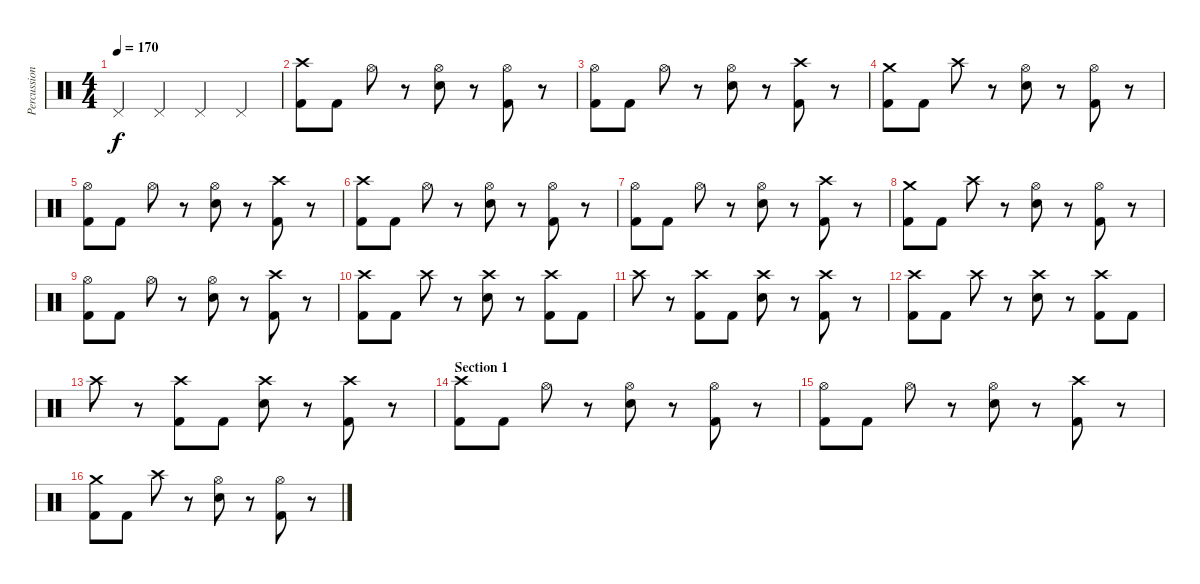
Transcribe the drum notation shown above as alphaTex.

\track ("Percussion" "Percussion") {instrument percussion}
\staff {score}
\articulation defaults
\ts (4 4)
\tempo 170
\clef neutral
\ks c "Pedal Hi-Hat (hit)".4{dy f} "Pedal Hi-Hat (hit)".4 "Pedal Hi-Hat (hit)".4 "Pedal Hi-Hat (hit)".4
|
("Crash high (hit)" "Kick (hit) 2").8 "Kick (hit) 2".8 "Hi-Hat (open)".8 r.8 ("Hi-Hat (open)" "Electric Snare (hit)").8 r.8 ("Hi-Hat (open)" "Kick (hit) 2").8 r.8 |
("Hi-Hat (open)" "Kick (hit) 2").8 "Kick (hit) 2".8 "Hi-Hat (open)".8 r.8 ("Hi-Hat (open)" "Electric Snare (hit)").8 r.8 ("Crash high (hit)" "Kick (hit) 2").8 r.8 |
("Crash medium (hit)" "Kick (hit) 2").8 "Kick (hit) 2".8 "Crash high (hit)".8 r.8 ("Hi-Hat (open)" "Electric Snare (hit)").8 r.8 ("Hi-Hat (open)" "Kick (hit) 2").8 r.8 |
("Hi-Hat (open)" "Kick (hit) 2").8 "Kick (hit) 2".8 "Hi-Hat (open)".8 r.8 ("Hi-Hat (open)" "Electric Snare (hit)").8 r.8 ("Crash high (hit)" "Kick (hit) 2").8 r.8 |
("Crash high (hit)" "Kick (hit) 2").8 "Kick (hit) 2".8 "Hi-Hat (open)".8 r.8 ("Hi-Hat (open)" "Electric Snare (hit)").8 r.8 ("Hi-Hat (open)" "Kick (hit) 2").8 r.8 |
("Hi-Hat (open)" "Kick (hit) 2").8 "Kick (hit) 2".8 "Hi-Hat (open)".8 r.8 ("Hi-Hat (open)" "Electric Snare (hit)").8 r.8 ("Crash high (hit)" "Kick (hit) 2").8 r.8 |
("Crash medium (hit)" "Kick (hit) 2").8 "Kick (hit) 2".8 "Crash high (hit)".8 r.8 ("Hi-Hat (open)" "Electric Snare (hit)").8 r.8 ("Hi-Hat (open)" "Kick (hit) 2").8 r.8 |
("Hi-Hat (open)" "Kick (hit) 2").8 "Kick (hit) 2".8 "Hi-Hat (open)".8 r.8 ("Hi-Hat (open)" "Electric Snare (hit)").8 r.8 ("Crash high (hit)" "Kick (hit) 2").8 r.8 |
("Crash high (hit)" "Kick (hit) 2").8 "Kick (hit) 2".8 "Crash high (hit)".8 r.8 ("Crash high (hit)" "Electric Snare (hit)").8 r.8 ("Crash high (hit)" "Kick (hit) 2").8 "Kick (hit) 2".8 |
"Crash high (hit)".8 r.8 ("Crash high (hit)" "Kick (hit) 2").8 "Kick (hit) 2".8 ("Crash high (hit)" "Electric Snare (hit)").8 r.8 ("Crash high (hit)" "Kick (hit) 2").8 r.8 |
("Crash high (hit)" "Kick (hit) 2").8 "Kick (hit) 2".8 "Crash high (hit)".8 r.8 ("Crash high (hit)" "Electric Snare (hit)").8 r.8 ("Crash high (hit)" "Kick (hit) 2").8 "Kick (hit) 2".8 |
"Crash high (hit)".8 r.8 ("Crash high (hit)" "Kick (hit) 2").8 "Kick (hit) 2".8 ("Crash high (hit)" "Electric Snare (hit)").8 r.8 ("Crash high (hit)" "Kick (hit) 2").8 r.8 |
\section ("" "Section 1")
("Crash high (hit)" "Kick (hit) 2").8 "Kick (hit) 2".8 "Hi-Hat (open)".8 r.8 ("Hi-Hat (open)" "Electric Snare (hit)").8 r.8 ("Hi-Hat (open)" "Kick (hit) 2").8 r.8 |
("Hi-Hat (open)" "Kick (hit) 2").8 "Kick (hit) 2".8 "Hi-Hat (open)".8 r.8 ("Hi-Hat (open)" "Electric Snare (hit)").8 r.8 ("Crash high (hit)" "Kick (hit) 2").8 r.8 |
("Crash medium (hit)" "Kick (hit) 2").8 "Kick (hit) 2".8 "Crash high (hit)".8 r.8 ("Hi-Hat (open)" "Electric Snare (hit)").8 r.8 ("Hi-Hat (open)" "Kick (hit) 2").8 r.8
